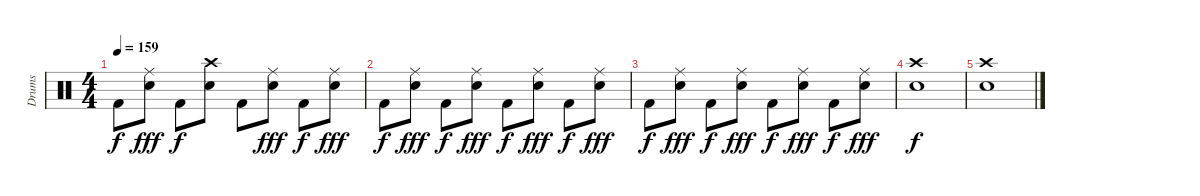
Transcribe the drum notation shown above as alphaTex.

\track ("Drums" "Drums") {instrument percussion}
\staff {score}
\articulation defaults
\ts (4 4)
\tempo 159
\clef neutral
\ks c "Kick (hit) 2".8{dy f}
("Ride (middle)" "Snare (hit) 2").8{dy fff} "Kick (hit) 2".8{dy f} ("Crash high (hit)" "Snare (hit) 2").8 "Kick (hit) 2".8 ("Ride (middle)" "Snare (hit) 2").8{dy fff} "Kick (hit) 2".8{dy f} ("Ride (middle)" "Snare (hit) 2").8{dy fff} |
"Kick (hit) 2".8{dy f} ("Ride (middle)" "Snare (hit) 2").8{dy fff} "Kick (hit) 2".8{dy f} ("Ride (middle)" "Snare (hit) 2").8{dy fff} "Kick (hit) 2".8{dy f} ("Ride (middle)" "Snare (hit) 2").8{dy fff} "Kick (hit) 2".8{dy f} ("Ride (middle)" "Snare (hit) 2").8{dy fff} |
"Kick (hit) 2".8{dy f} ("Ride (middle)" "Snare (hit) 2").8{dy fff} "Kick (hit) 2".8{dy f} ("Ride (middle)" "Snare (hit) 2").8{dy fff} "Kick (hit) 2".8{dy f} ("Ride (middle)" "Snare (hit) 2").8{dy fff} "Kick (hit) 2".8{dy f} ("Ride (middle)" "Snare (hit) 2").8{dy fff} |
("Crash high (hit)" "Snare (hit) 2").1{dy f} |
("Crash high (hit)" "Snare (hit) 2").1
